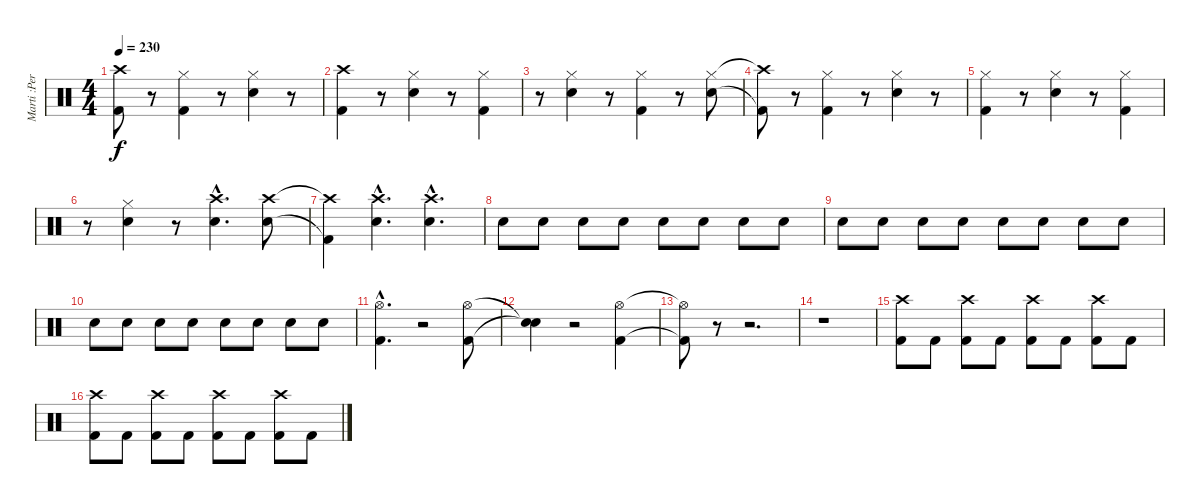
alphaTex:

\track ("Marti :Percussion" "Marti :Per") {instrument percussion}
\staff {score}
\articulation defaults
\ts (4 4)
\tempo 230
\clef neutral
\ks c
("Crash high (hit)"{t} "Kick (hit) 2"{t}).8{dy f} r.8 ("Hi-Hat (closed)" "Kick (hit) 2").4 r.8 ("Hi-Hat (closed)" "Snare (hit) 2").4 r.8 |
("Crash high (hit)" "Kick (hit) 2").4 r.8 ("Hi-Hat (closed)" "Snare (hit) 2").4 r.8 ("Hi-Hat (closed)" "Kick (hit) 2").4 |
r.8 ("Hi-Hat (closed)" "Snare (hit) 2").4 r.8 ("Hi-Hat (closed)" "Kick (hit) 2").4 r.8 ("Hi-Hat (closed)" "Snare (hit) 2").8 |
("Crash high (hit)"{t} "Kick (hit) 2"{t}).8 r.8 ("Hi-Hat (closed)" "Kick (hit) 2").4 r.8 ("Hi-Hat (closed)" "Snare (hit) 2").4 r.8 |
("Hi-Hat (closed)" "Kick (hit) 2").4 r.8 ("Hi-Hat (closed)" "Snare (hit) 2").4 r.8 ("Hi-Hat (closed)" "Kick (hit) 2").4 |
r.8 ("Hi-Hat (closed)" "Snare (hit) 2").4 r.8 ("Crash high (hit)"{hac} "Snare (hit) 2"{hac}).4{d} ("Crash high (hit)" "Snare (hit) 2").8 |
("Crash high (hit)"{t} "Kick (hit) 2"{t}).4 ("Crash high (hit)"{hac} "Snare (hit) 2"{hac}).4{d} ("Crash high (hit)"{hac} "Snare (hit) 2"{hac}).4{d} |
"Snare (hit) 2".8 "Snare (hit) 2".8 "Snare (hit) 2".8 "Snare (hit) 2".8 "Snare (hit) 2".8 "Snare (hit) 2".8 "Snare (hit) 2".8 "Snare (hit) 2".8 |
"Snare (hit) 2".8 "Snare (hit) 2".8 "Snare (hit) 2".8 "Snare (hit) 2".8 "Snare (hit) 2".8 "Snare (hit) 2".8 "Snare (hit) 2".8 "Snare (hit) 2".8 |
"Snare (hit) 2".8 "Snare (hit) 2".8 "Snare (hit) 2".8 "Snare (hit) 2".8 "Snare (hit) 2".8 "Snare (hit) 2".8 "Snare (hit) 2".8 "Snare (hit) 2".8 |
("Hi-Hat (open)"{hac} "Kick (hit) 2"{hac}).4{d} r.2 ("Hi-Hat (open)" "Kick (hit) 2").8 |
("Snare (hit)"{t} "Snare (hit)"{t}).4 r.2 ("Hi-Hat (open)" "Kick (hit) 2").4 |
("Hi-Hat (open)"{t} "Kick (hit) 2"{t}).8 r.8 r.2{d} |
r.1 |
("Crash high (hit)" "Kick (hit) 2").8 "Kick (hit) 2".8 ("Crash high (hit)" "Kick (hit) 2").8 "Kick (hit) 2".8 ("Crash high (hit)" "Kick (hit) 2").8 "Kick (hit) 2".8 ("Crash high (hit)" "Kick (hit) 2").8 "Kick (hit) 2".8 |
("Crash high (hit)" "Kick (hit) 2").8 "Kick (hit) 2".8 ("Crash high (hit)" "Kick (hit) 2").8 "Kick (hit) 2".8 ("Crash high (hit)" "Kick (hit) 2").8 "Kick (hit) 2".8 ("Crash high (hit)" "Kick (hit) 2").8 "Kick (hit) 2".8
